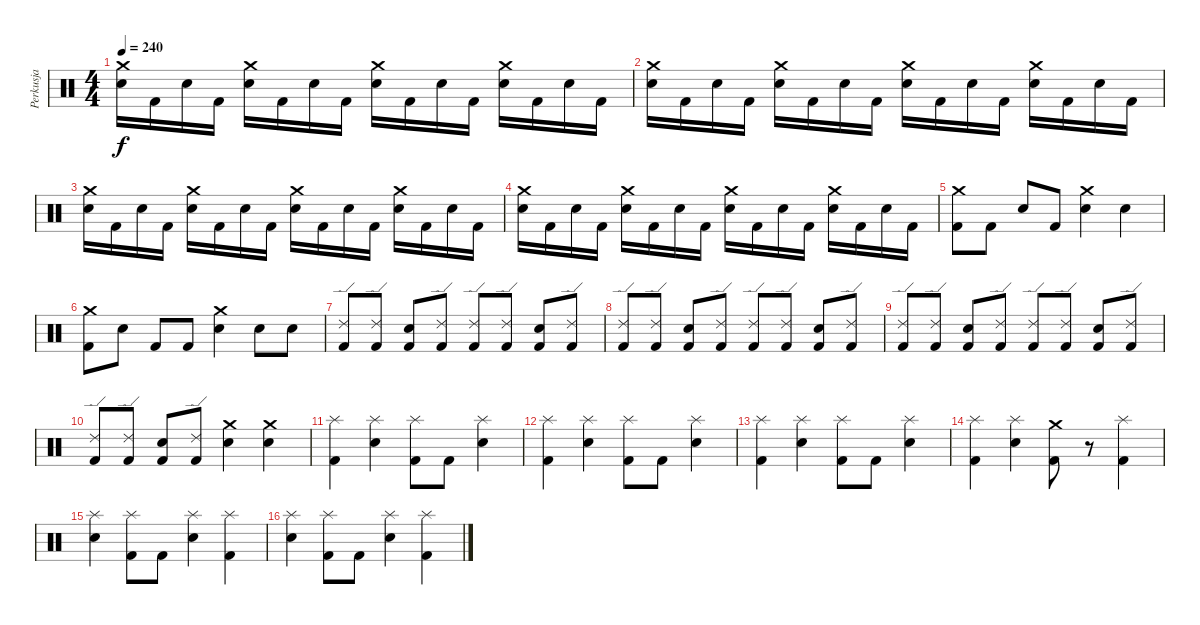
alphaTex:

\track ("Perkusja" "Perkusja") {instrument percussion}
\staff {score}
\articulation defaults
\ts (4 4)
\tempo 240
\clef neutral
\ks c
("Crash medium (hit)" "Snare (hit) 2").16{dy f} "Kick (hit) 2".16 "Snare (hit) 2".16 "Kick (hit) 2".16 ("Crash medium (hit)" "Snare (hit) 2").16 "Kick (hit) 2".16 "Snare (hit) 2".16 "Kick (hit) 2".16 ("Crash medium (hit)" "Snare (hit) 2").16 "Kick (hit) 2".16 "Snare (hit) 2".16 "Kick (hit) 2".16 ("Crash medium (hit)" "Snare (hit) 2").16 "Kick (hit) 2".16 "Snare (hit) 2".16 "Kick (hit) 2".16 |
("Crash medium (hit)" "Snare (hit) 2").16 "Kick (hit) 2".16 "Snare (hit) 2".16 "Kick (hit) 2".16 ("Crash medium (hit)" "Snare (hit) 2").16 "Kick (hit) 2".16 "Snare (hit) 2".16 "Kick (hit) 2".16 ("Crash medium (hit)" "Snare (hit) 2").16 "Kick (hit) 2".16 "Snare (hit) 2".16 "Kick (hit) 2".16 ("Crash medium (hit)" "Snare (hit) 2").16 "Kick (hit) 2".16 "Snare (hit) 2".16 "Kick (hit) 2".16 |
("Crash medium (hit)" "Snare (hit) 2").16 "Kick (hit) 2".16 "Snare (hit) 2".16 "Kick (hit) 2".16 ("Crash medium (hit)" "Snare (hit) 2").16 "Kick (hit) 2".16 "Snare (hit) 2".16 "Kick (hit) 2".16 ("Crash medium (hit)" "Snare (hit) 2").16 "Kick (hit) 2".16 "Snare (hit) 2".16 "Kick (hit) 2".16 ("Crash medium (hit)" "Snare (hit) 2").16 "Kick (hit) 2".16 "Snare (hit) 2".16 "Kick (hit) 2".16 |
("Crash medium (hit)" "Snare (hit) 2").16 "Kick (hit) 2".16 "Snare (hit) 2".16 "Kick (hit) 2".16 ("Crash medium (hit)" "Snare (hit) 2").16 "Kick (hit) 2".16 "Snare (hit) 2".16 "Kick (hit) 2".16 ("Crash medium (hit)" "Snare (hit) 2").16 "Kick (hit) 2".16 "Snare (hit) 2".16 "Kick (hit) 2".16 ("Crash medium (hit)" "Snare (hit) 2").16 "Kick (hit) 2".16 "Snare (hit) 2".16 "Kick (hit) 2".16 |
("Crash medium (hit)" "Kick (hit) 2").8 "Kick (hit) 2".8 "Snare (hit) 2".8 "Kick (hit) 2".8 ("Crash medium (hit)" "Snare (hit) 2").4 "Snare (hit) 2".4 |
("Crash medium (hit)" "Kick (hit) 2").8 "Snare (hit) 2".8 "Kick (hit) 2".8 "Kick (hit) 2".8 ("Crash medium (hit)" "Snare (hit) 2").4 "Snare (hit) 2".8 "Snare (hit) 2".8 |
("Ride (edge) 2" "Kick (hit) 2").8 ("Ride (edge) 2" "Kick (hit) 2").8 ("Snare (hit) 2" "Kick (hit) 2").8 ("Ride (edge) 2" "Kick (hit) 2").8 ("Ride (edge) 2" "Kick (hit) 2").8 ("Ride (edge) 2" "Kick (hit) 2").8 ("Snare (hit) 2" "Kick (hit) 2").8 ("Ride (edge) 2" "Kick (hit) 2").8 |
("Ride (edge) 2" "Kick (hit) 2").8 ("Ride (edge) 2" "Kick (hit) 2").8 ("Snare (hit) 2" "Kick (hit) 2").8 ("Ride (edge) 2" "Kick (hit) 2").8 ("Ride (edge) 2" "Kick (hit) 2").8 ("Ride (edge) 2" "Kick (hit) 2").8 ("Snare (hit) 2" "Kick (hit) 2").8 ("Ride (edge) 2" "Kick (hit) 2").8 |
("Ride (edge) 2" "Kick (hit) 2").8 ("Ride (edge) 2" "Kick (hit) 2").8 ("Snare (hit) 2" "Kick (hit) 2").8 ("Ride (edge) 2" "Kick (hit) 2").8 ("Ride (edge) 2" "Kick (hit) 2").8 ("Ride (edge) 2" "Kick (hit) 2").8 ("Snare (hit) 2" "Kick (hit) 2").8 ("Ride (edge) 2" "Kick (hit) 2").8 |
("Ride (edge) 2" "Kick (hit) 2").8 ("Ride (edge) 2" "Kick (hit) 2").8 ("Snare (hit) 2" "Kick (hit) 2").8 ("Ride (edge) 2" "Kick (hit) 2").8 ("Crash medium (hit)" "Snare (hit) 2").4 ("Crash medium (hit)" "Snare (hit) 2").4 |
("Splash (hit)" "Kick (hit) 2").4 ("Splash (hit)" "Snare (hit) 2").4 ("Splash (hit)" "Kick (hit) 2").8 "Kick (hit) 2".8 ("Splash (hit)" "Snare (hit) 2").4 |
("Splash (hit)" "Kick (hit) 2").4 ("Splash (hit)" "Snare (hit) 2").4 ("Splash (hit)" "Kick (hit) 2").8 "Kick (hit) 2".8 ("Splash (hit)" "Snare (hit) 2").4 |
("Splash (hit)" "Kick (hit) 2").4 ("Splash (hit)" "Snare (hit) 2").4 ("Splash (hit)" "Kick (hit) 2").8 "Kick (hit) 2".8 ("Splash (hit)" "Snare (hit) 2").4 |
("Splash (hit)" "Kick (hit) 2").4 ("Splash (hit)" "Snare (hit) 2").4 ("Crash medium (hit)" "Kick (hit) 2").8 r.8 ("Splash (hit)" "Kick (hit) 2").4 |
("Splash (hit)" "Snare (hit) 2").4 ("Splash (hit)" "Kick (hit) 2").8 "Kick (hit) 2".8 ("Splash (hit)" "Snare (hit) 2").4 ("Splash (hit)" "Kick (hit) 2").4 |
("Splash (hit)" "Snare (hit) 2").4 ("Splash (hit)" "Kick (hit) 2").8 "Kick (hit) 2".8 ("Splash (hit)" "Snare (hit) 2").4 ("Splash (hit)" "Kick (hit) 2").4
